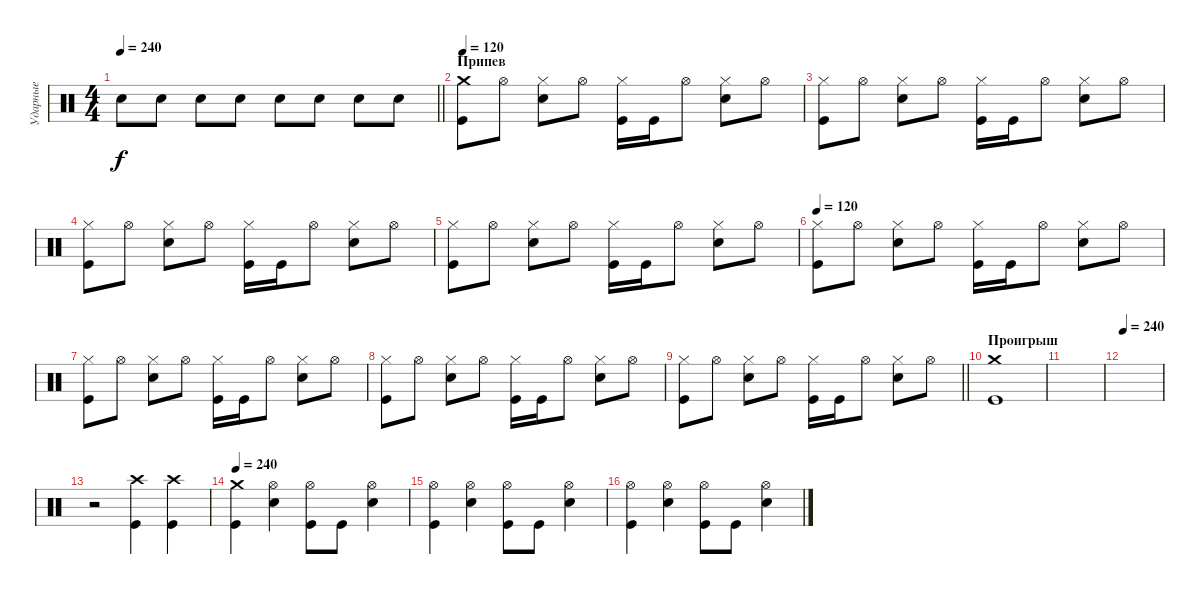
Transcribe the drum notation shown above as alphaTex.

\track ("Ударные" "Ударные") {instrument percussion}
\staff {score}
\articulation defaults
\ts (4 4)
\tempo 240
\clef neutral
\barLineRight lightlight
\ks c "Electric Snare (hit)".8{dy f} "Electric Snare (hit)".8 "Electric Snare (hit)".8 "Electric Snare (hit)".8 "Electric Snare (hit)".8 "Electric Snare (hit)".8 "Electric Snare (hit)".8 "Electric Snare (hit)".8
|
\section ("" "Припев")
\tempo 120
("Crash medium (hit)" "Kick (hit)").8 "Hi-Hat (open)".8 ("Hi-Hat (closed)" "Electric Snare (hit)").8 "Hi-Hat (open)".8 ("Hi-Hat (closed)" "Kick (hit)").16 "Kick (hit)".16 "Hi-Hat (open)".8 ("Hi-Hat (closed)" "Electric Snare (hit)").8 "Hi-Hat (open)".8 |
("Hi-Hat (closed)" "Kick (hit)").8 "Hi-Hat (open)".8 ("Hi-Hat (closed)" "Electric Snare (hit)").8 "Hi-Hat (open)".8 ("Hi-Hat (closed)" "Kick (hit)").16 "Kick (hit)".16 "Hi-Hat (open)".8 ("Hi-Hat (closed)" "Electric Snare (hit)").8 "Hi-Hat (open)".8 |
("Hi-Hat (closed)" "Kick (hit)").8 "Hi-Hat (open)".8 ("Hi-Hat (closed)" "Electric Snare (hit)").8 "Hi-Hat (open)".8 ("Hi-Hat (closed)" "Kick (hit)").16 "Kick (hit)".16 "Hi-Hat (open)".8 ("Hi-Hat (closed)" "Electric Snare (hit)").8 "Hi-Hat (open)".8 |
("Hi-Hat (closed)" "Kick (hit)").8 "Hi-Hat (open)".8 ("Hi-Hat (closed)" "Electric Snare (hit)").8 "Hi-Hat (open)".8 ("Hi-Hat (closed)" "Kick (hit)").16 "Kick (hit)".16 "Hi-Hat (open)".8 ("Hi-Hat (closed)" "Electric Snare (hit)").8 "Hi-Hat (open)".8 |
\tempo 120
("Hi-Hat (closed)" "Kick (hit)").8 "Hi-Hat (open)".8 ("Hi-Hat (closed)" "Electric Snare (hit)").8 "Hi-Hat (open)".8 ("Hi-Hat (closed)" "Kick (hit)").16 "Kick (hit)".16 "Hi-Hat (open)".8 ("Hi-Hat (closed)" "Electric Snare (hit)").8 "Hi-Hat (open)".8 |
("Hi-Hat (closed)" "Kick (hit)").8 "Hi-Hat (open)".8 ("Hi-Hat (closed)" "Electric Snare (hit)").8 "Hi-Hat (open)".8 ("Hi-Hat (closed)" "Kick (hit)").16 "Kick (hit)".16 "Hi-Hat (open)".8 ("Hi-Hat (closed)" "Electric Snare (hit)").8 "Hi-Hat (open)".8 |
("Hi-Hat (closed)" "Kick (hit)").8 "Hi-Hat (open)".8 ("Hi-Hat (closed)" "Electric Snare (hit)").8 "Hi-Hat (open)".8 ("Hi-Hat (closed)" "Kick (hit)").16 "Kick (hit)".16 "Hi-Hat (open)".8 ("Hi-Hat (closed)" "Electric Snare (hit)").8 "Hi-Hat (open)".8 |
\barLineRight lightlight
("Hi-Hat (closed)" "Kick (hit)").8 "Hi-Hat (open)".8 ("Hi-Hat (closed)" "Electric Snare (hit)").8 "Hi-Hat (open)".8 ("Hi-Hat (closed)" "Kick (hit)").16 "Kick (hit)".16 "Hi-Hat (open)".8 ("Hi-Hat (closed)" "Electric Snare (hit)").8 "Hi-Hat (open)".8 |
\section ("" "Проигрыш")
("Crash medium (hit)" "Kick (hit)").1 |
|
\tempo 240
|
r.2 ("Crash high (hit)" "Kick (hit)").4 ("Crash high (hit)" "Kick (hit)").4 |
\tempo 240
("Crash medium (hit)" "Kick (hit)").4 ("Hi-Hat (open)" "Electric Snare (hit)").4 ("Hi-Hat (open)" "Kick (hit)").8 "Kick (hit)".8 ("Hi-Hat (open)" "Electric Snare (hit)").4 |
("Hi-Hat (open)" "Kick (hit)").4 ("Hi-Hat (open)" "Electric Snare (hit)").4 ("Hi-Hat (open)" "Kick (hit)").8 "Kick (hit)".8 ("Hi-Hat (open)" "Electric Snare (hit)").4 |
("Hi-Hat (open)" "Kick (hit)").4 ("Hi-Hat (open)" "Electric Snare (hit)").4 ("Hi-Hat (open)" "Kick (hit)").8 "Kick (hit)".8 ("Hi-Hat (open)" "Electric Snare (hit)").4
